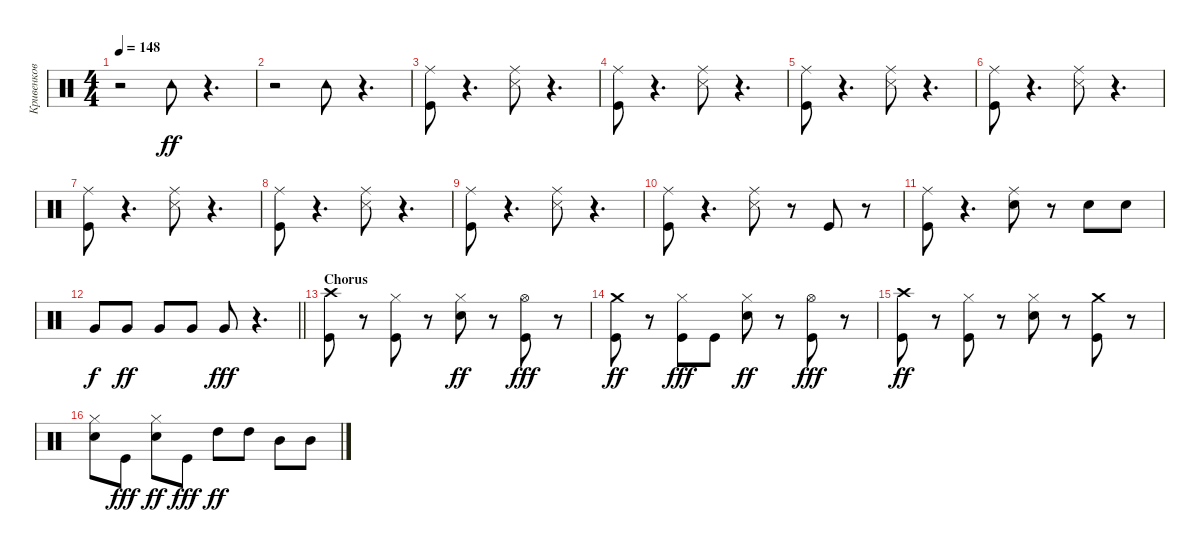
\track ("Кривенков" "Кривенков") {instrument percussion}
\staff {score}
\articulation defaults
\ts (4 4)
\tempo 148
\clef neutral
\ks c
r.2{dy ff} "Tambourine (hit)".8 r.4{d} |
r.2 "Tambourine (hit)".8 r.4{d} |
("Ride (middle)" "Kick (hit)").8 r.4{d} ("Ride (middle)" "Snare (side stick) 3").8 r.4{d} |
("Ride (middle)" "Kick (hit)").8 r.4{d} ("Ride (middle)" "Snare (side stick) 3").8 r.4{d} |
("Ride (middle)" "Kick (hit)").8 r.4{d} ("Ride (middle)" "Snare (side stick) 3").8 r.4{d} |
("Ride (middle)" "Kick (hit)").8 r.4{d} ("Ride (middle)" "Snare (side stick) 3").8 r.4{d} |
("Ride (middle)" "Kick (hit)").8 r.4{d} ("Ride (middle)" "Snare (side stick) 3").8 r.4{d} |
("Ride (middle)" "Kick (hit)").8 r.4{d} ("Ride (middle)" "Snare (side stick) 3").8 r.4{d} |
("Ride (middle)" "Kick (hit)").8 r.4{d} ("Ride (middle)" "Snare (side stick) 3").8 r.4{d} |
("Ride (middle)" "Kick (hit)").8 r.4{d} ("Ride (middle)" "Snare (side stick) 3").8 r.8 "Kick (hit)".8 r.8 |
("Kick (hit)" "Ride (middle)").8 r.4{d} ("Ride (middle)" "Snare (hit) 2").8 r.8 "Snare (hit) 2".8 "Snare (hit) 2".8 |
\barLineRight lightlight "Very Low Tom (hit)".8{dy f} "Very Low Tom (hit)".8{dy ff} "Very Low Tom (hit)".8 "Very Low Tom (hit)".8 "Very Low Tom (hit)".8{dy fff}
r.4{d} |
\section ("" "Chorus")
("Crash high (hit)" "Kick (hit)").8 r.8 ("Hi-Hat (closed)" "Kick (hit)").8 r.8 ("Hi-Hat (closed)" "Snare (hit) 2").8{dy ff} r.8 ("Hi-Hat (open)" "Kick (hit)").8{dy fff} r.8 |
("Kick (hit)" "Crash medium (hit)").8{dy ff} r.8 ("Hi-Hat (closed)" "Kick (hit)").8{dy fff} "Kick (hit)".8 ("Hi-Hat (closed)" "Snare (hit) 2").8{dy ff} r.8 ("Hi-Hat (open)" "Kick (hit)").8{dy fff} r.8 |
("Kick (hit)" "Crash high (hit)").8{dy ff} r.8 ("Kick (hit)" "Hi-Hat (closed)").8 r.8 ("Snare (hit) 2" "Hi-Hat (closed)").8 r.8 ("Kick (hit)" "Crash medium (hit)").8 r.8 |
("Hi-Hat (closed)" "Snare (hit) 2").8 "Kick (hit)".8{dy fff} ("Hi-Hat (closed)" "Snare (hit) 2").8{dy ff} "Kick (hit)".8{dy fff} "High Tom (hit)".8{dy ff} "High Tom (hit)".8 "Mid Tom (hit)".8 "Mid Tom (hit)".8
